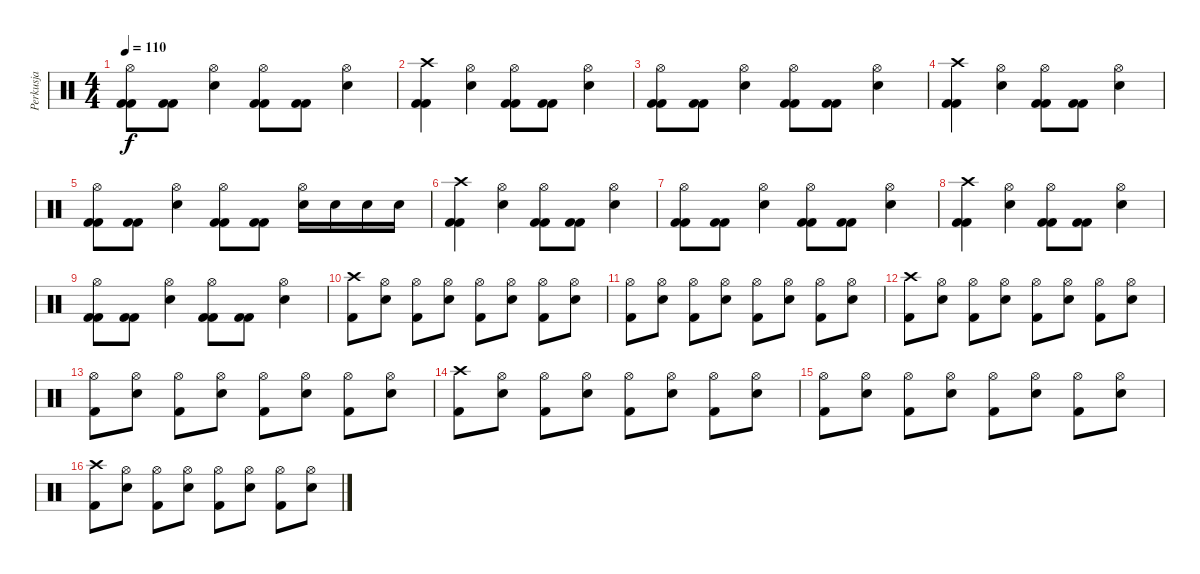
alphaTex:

\track ("Perkusja" "Perkusja") {instrument percussion}
\staff {score}
\articulation defaults
\ts (4 4)
\tempo 110
\clef neutral
\ks c
("Hi-Hat (open)" "Kick (hit) 2" "Kick (hit) 2").8{dy f} ("Kick (hit) 2" "Kick (hit) 2").8 ("Hi-Hat (open)" "Electric Snare (hit)").4 ("Hi-Hat (open)" "Kick (hit) 2" "Kick (hit) 2").8 ("Kick (hit) 2" "Kick (hit) 2").8 ("Hi-Hat (open)" "Electric Snare (hit)").4 |
("Crash high (hit)" "Kick (hit) 2" "Kick (hit) 2").4 ("Hi-Hat (open)" "Electric Snare (hit)").4 ("Hi-Hat (open)" "Kick (hit) 2" "Kick (hit) 2").8 ("Kick (hit) 2" "Kick (hit) 2").8 ("Hi-Hat (open)" "Electric Snare (hit)").4 |
("Hi-Hat (open)" "Kick (hit) 2" "Kick (hit) 2").8 ("Kick (hit) 2" "Kick (hit) 2").8 ("Hi-Hat (open)" "Electric Snare (hit)").4 ("Hi-Hat (open)" "Kick (hit) 2" "Kick (hit) 2").8 ("Kick (hit) 2" "Kick (hit) 2").8 ("Hi-Hat (open)" "Electric Snare (hit)").4 |
("Crash high (hit)" "Kick (hit) 2" "Kick (hit) 2").4 ("Hi-Hat (open)" "Electric Snare (hit)").4 ("Hi-Hat (open)" "Kick (hit) 2" "Kick (hit) 2").8 ("Kick (hit) 2" "Kick (hit) 2").8 ("Hi-Hat (open)" "Electric Snare (hit)").4 |
("Hi-Hat (open)" "Kick (hit) 2" "Kick (hit) 2").8 ("Kick (hit) 2" "Kick (hit) 2").8 ("Hi-Hat (open)" "Electric Snare (hit)").4 ("Hi-Hat (open)" "Kick (hit) 2" "Kick (hit) 2").8 ("Kick (hit) 2" "Kick (hit) 2").8 ("Hi-Hat (open)" "Electric Snare (hit)").16 "Electric Snare (hit)".16 "Electric Snare (hit)".16 "Electric Snare (hit)".16 |
("Crash high (hit)" "Kick (hit) 2" "Kick (hit) 2").4 ("Hi-Hat (open)" "Electric Snare (hit)").4 ("Hi-Hat (open)" "Kick (hit) 2" "Kick (hit) 2").8 ("Kick (hit) 2" "Kick (hit) 2").8 ("Hi-Hat (open)" "Electric Snare (hit)").4 |
("Hi-Hat (open)" "Kick (hit) 2" "Kick (hit) 2").8 ("Kick (hit) 2" "Kick (hit) 2").8 ("Hi-Hat (open)" "Electric Snare (hit)").4 ("Hi-Hat (open)" "Kick (hit) 2" "Kick (hit) 2").8 ("Kick (hit) 2" "Kick (hit) 2").8 ("Hi-Hat (open)" "Electric Snare (hit)").4 |
("Crash high (hit)" "Kick (hit) 2" "Kick (hit) 2").4 ("Hi-Hat (open)" "Electric Snare (hit)").4 ("Hi-Hat (open)" "Kick (hit) 2" "Kick (hit) 2").8 ("Kick (hit) 2" "Kick (hit) 2").8 ("Hi-Hat (open)" "Electric Snare (hit)").4 |
("Hi-Hat (open)" "Kick (hit) 2" "Kick (hit) 2").8 ("Kick (hit) 2" "Kick (hit) 2").8 ("Hi-Hat (open)" "Electric Snare (hit)").4 ("Hi-Hat (open)" "Kick (hit) 2" "Kick (hit) 2").8 ("Kick (hit) 2" "Kick (hit) 2").8 ("Hi-Hat (open)" "Electric Snare (hit)").4 |
("Crash high (hit)" "Kick (hit) 2").8 ("Hi-Hat (open)" "Electric Snare (hit)").8 ("Hi-Hat (open)" "Kick (hit) 2").8 ("Hi-Hat (open)" "Electric Snare (hit)").8 ("Hi-Hat (open)" "Kick (hit) 2").8 ("Hi-Hat (open)" "Electric Snare (hit)").8 ("Hi-Hat (open)" "Kick (hit) 2").8 ("Hi-Hat (open)" "Electric Snare (hit)").8 |
("Hi-Hat (open)" "Kick (hit) 2").8 ("Hi-Hat (open)" "Electric Snare (hit)").8 ("Hi-Hat (open)" "Kick (hit) 2").8 ("Hi-Hat (open)" "Electric Snare (hit)").8 ("Hi-Hat (open)" "Kick (hit) 2").8 ("Hi-Hat (open)" "Electric Snare (hit)").8 ("Hi-Hat (open)" "Kick (hit) 2").8 ("Hi-Hat (open)" "Electric Snare (hit)").8 |
("Crash high (hit)" "Kick (hit) 2").8 ("Hi-Hat (open)" "Electric Snare (hit)").8 ("Hi-Hat (open)" "Kick (hit) 2").8 ("Hi-Hat (open)" "Electric Snare (hit)").8 ("Hi-Hat (open)" "Kick (hit) 2").8 ("Hi-Hat (open)" "Electric Snare (hit)").8 ("Hi-Hat (open)" "Kick (hit) 2").8 ("Hi-Hat (open)" "Electric Snare (hit)").8 |
("Hi-Hat (open)" "Kick (hit) 2").8 ("Hi-Hat (open)" "Electric Snare (hit)").8 ("Hi-Hat (open)" "Kick (hit) 2").8 ("Hi-Hat (open)" "Electric Snare (hit)").8 ("Hi-Hat (open)" "Kick (hit) 2").8 ("Hi-Hat (open)" "Electric Snare (hit)").8 ("Hi-Hat (open)" "Kick (hit) 2").8 ("Hi-Hat (open)" "Electric Snare (hit)").8 |
("Crash high (hit)" "Kick (hit) 2").8 ("Hi-Hat (open)" "Electric Snare (hit)").8 ("Hi-Hat (open)" "Kick (hit) 2").8 ("Hi-Hat (open)" "Electric Snare (hit)").8 ("Hi-Hat (open)" "Kick (hit) 2").8 ("Hi-Hat (open)" "Electric Snare (hit)").8 ("Hi-Hat (open)" "Kick (hit) 2").8 ("Hi-Hat (open)" "Electric Snare (hit)").8 |
("Hi-Hat (open)" "Kick (hit) 2").8 ("Hi-Hat (open)" "Electric Snare (hit)").8 ("Hi-Hat (open)" "Kick (hit) 2").8 ("Hi-Hat (open)" "Electric Snare (hit)").8 ("Hi-Hat (open)" "Kick (hit) 2").8 ("Hi-Hat (open)" "Electric Snare (hit)").8 ("Hi-Hat (open)" "Kick (hit) 2").8 ("Hi-Hat (open)" "Electric Snare (hit)").8 |
("Crash high (hit)" "Kick (hit) 2").8 ("Hi-Hat (open)" "Electric Snare (hit)").8 ("Hi-Hat (open)" "Kick (hit) 2").8 ("Hi-Hat (open)" "Electric Snare (hit)").8 ("Hi-Hat (open)" "Kick (hit) 2").8 ("Hi-Hat (open)" "Electric Snare (hit)").8 ("Hi-Hat (open)" "Kick (hit) 2").8 ("Hi-Hat (open)" "Electric Snare (hit)").8
